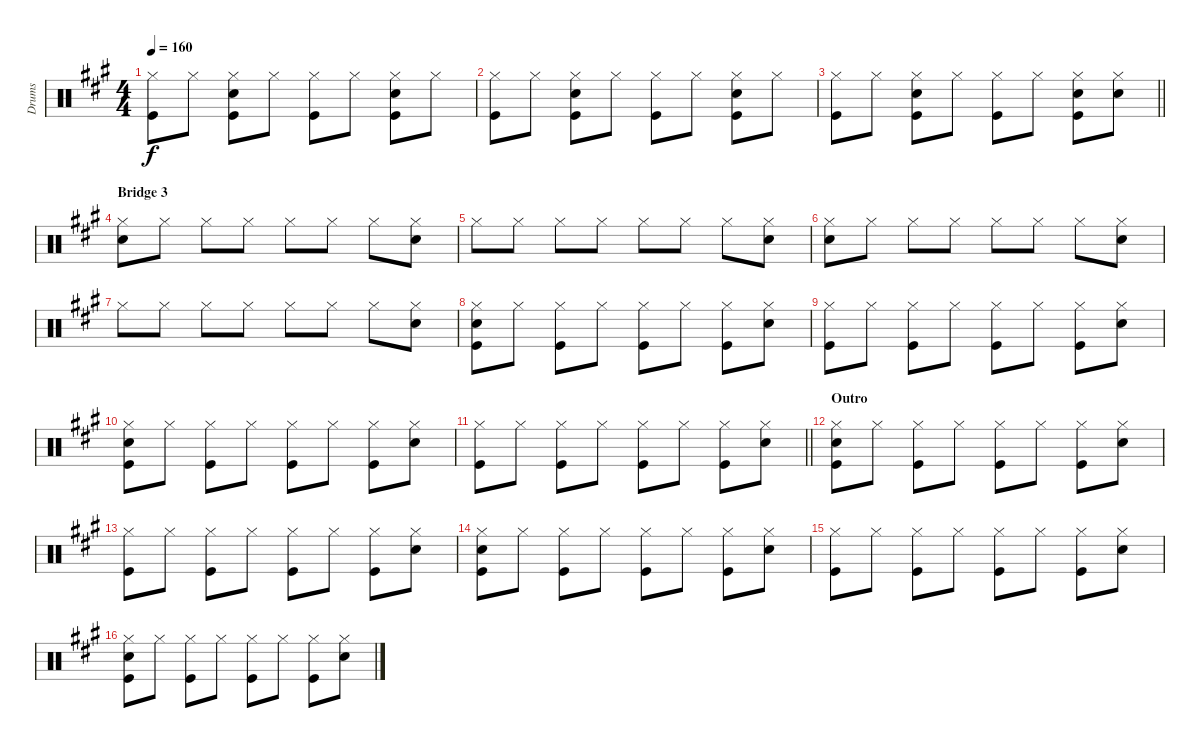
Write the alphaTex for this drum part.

\track ("Drums" "Drums") {instrument percussion}
\staff {score}
\articulation defaults
\ts (4 4)
\tempo 160
\clef neutral
\ks a
("Hi-Hat (closed)" "Kick (hit)").8{dy f} "Hi-Hat (closed)".8 ("Hi-Hat (closed)" "Snare (hit) 2" "Kick (hit)").8 "Hi-Hat (closed)".8 ("Hi-Hat (closed)" "Kick (hit)").8 "Hi-Hat (closed)".8 ("Hi-Hat (closed)" "Snare (hit) 2" "Kick (hit)").8 "Hi-Hat (closed)".8 |
("Hi-Hat (closed)" "Kick (hit)").8 "Hi-Hat (closed)".8 ("Hi-Hat (closed)" "Snare (hit) 2" "Kick (hit)").8 "Hi-Hat (closed)".8 ("Hi-Hat (closed)" "Kick (hit)").8 "Hi-Hat (closed)".8 ("Hi-Hat (closed)" "Snare (hit) 2" "Kick (hit)").8 "Hi-Hat (closed)".8 |
\barLineRight lightlight
("Hi-Hat (closed)" "Kick (hit)").8 "Hi-Hat (closed)".8 ("Hi-Hat (closed)" "Snare (hit) 2" "Kick (hit)").8 "Hi-Hat (closed)".8 ("Hi-Hat (closed)" "Kick (hit)").8 "Hi-Hat (closed)".8 ("Hi-Hat (closed)" "Snare (hit) 2" "Kick (hit)").8 ("Hi-Hat (closed)" "Snare (hit) 2").8 |
\section ("" "Bridge 3")
("Snare (hit) 2" "Hi-Hat (closed)").8 "Hi-Hat (closed)".8 "Hi-Hat (closed)".8 "Hi-Hat (closed)".8 "Hi-Hat (closed)".8 "Hi-Hat (closed)".8 "Hi-Hat (closed)".8 ("Hi-Hat (closed)" "Snare (hit) 2").8 |
"Hi-Hat (closed)".8 "Hi-Hat (closed)".8 "Hi-Hat (closed)".8 "Hi-Hat (closed)".8 "Hi-Hat (closed)".8 "Hi-Hat (closed)".8 "Hi-Hat (closed)".8 ("Hi-Hat (closed)" "Snare (hit) 2").8 |
("Snare (hit) 2" "Hi-Hat (closed)").8 "Hi-Hat (closed)".8 "Hi-Hat (closed)".8 "Hi-Hat (closed)".8 "Hi-Hat (closed)".8 "Hi-Hat (closed)".8 "Hi-Hat (closed)".8 ("Hi-Hat (closed)" "Snare (hit) 2").8 |
"Hi-Hat (closed)".8 "Hi-Hat (closed)".8 "Hi-Hat (closed)".8 "Hi-Hat (closed)".8 "Hi-Hat (closed)".8 "Hi-Hat (closed)".8 "Hi-Hat (closed)".8 ("Hi-Hat (closed)" "Snare (hit) 2").8 |
("Snare (hit) 2" "Hi-Hat (closed)" "Kick (hit)").8 "Hi-Hat (closed)".8 ("Hi-Hat (closed)" "Kick (hit)").8 "Hi-Hat (closed)".8 ("Hi-Hat (closed)" "Kick (hit)").8 "Hi-Hat (closed)".8 ("Hi-Hat (closed)" "Kick (hit)").8 ("Hi-Hat (closed)" "Snare (hit) 2").8 |
("Kick (hit)" "Hi-Hat (closed)").8 "Hi-Hat (closed)".8 ("Hi-Hat (closed)" "Kick (hit)").8 "Hi-Hat (closed)".8 ("Hi-Hat (closed)" "Kick (hit)").8 "Hi-Hat (closed)".8 ("Hi-Hat (closed)" "Kick (hit)").8 ("Hi-Hat (closed)" "Snare (hit) 2").8 |
("Snare (hit) 2" "Hi-Hat (closed)" "Kick (hit)").8 "Hi-Hat (closed)".8 ("Hi-Hat (closed)" "Kick (hit)").8 "Hi-Hat (closed)".8 ("Hi-Hat (closed)" "Kick (hit)").8 "Hi-Hat (closed)".8 ("Hi-Hat (closed)" "Kick (hit)").8 ("Hi-Hat (closed)" "Snare (hit) 2").8 |
\barLineRight lightlight
("Kick (hit)" "Hi-Hat (closed)").8 "Hi-Hat (closed)".8 ("Hi-Hat (closed)" "Kick (hit)").8 "Hi-Hat (closed)".8 ("Hi-Hat (closed)" "Kick (hit)").8 "Hi-Hat (closed)".8 ("Hi-Hat (closed)" "Kick (hit)").8 ("Hi-Hat (closed)" "Snare (hit) 2").8 |
\section ("" "Outro")
("Snare (hit) 2" "Hi-Hat (closed)" "Kick (hit)").8 "Hi-Hat (closed)".8 ("Hi-Hat (closed)" "Kick (hit)").8 "Hi-Hat (closed)".8 ("Hi-Hat (closed)" "Kick (hit)").8 "Hi-Hat (closed)".8 ("Hi-Hat (closed)" "Kick (hit)").8 ("Hi-Hat (closed)" "Snare (hit) 2").8 |
("Kick (hit)" "Hi-Hat (closed)").8 "Hi-Hat (closed)".8 ("Hi-Hat (closed)" "Kick (hit)").8 "Hi-Hat (closed)".8 ("Hi-Hat (closed)" "Kick (hit)").8 "Hi-Hat (closed)".8 ("Hi-Hat (closed)" "Kick (hit)").8 ("Hi-Hat (closed)" "Snare (hit) 2").8 |
("Snare (hit) 2" "Hi-Hat (closed)" "Kick (hit)").8 "Hi-Hat (closed)".8 ("Hi-Hat (closed)" "Kick (hit)").8 "Hi-Hat (closed)".8 ("Hi-Hat (closed)" "Kick (hit)").8 "Hi-Hat (closed)".8 ("Hi-Hat (closed)" "Kick (hit)").8 ("Hi-Hat (closed)" "Snare (hit) 2").8 |
("Kick (hit)" "Hi-Hat (closed)").8 "Hi-Hat (closed)".8 ("Hi-Hat (closed)" "Kick (hit)").8 "Hi-Hat (closed)".8 ("Hi-Hat (closed)" "Kick (hit)").8 "Hi-Hat (closed)".8 ("Hi-Hat (closed)" "Kick (hit)").8 ("Hi-Hat (closed)" "Snare (hit) 2").8 |
("Snare (hit) 2" "Hi-Hat (closed)" "Kick (hit)").8 "Hi-Hat (closed)".8 ("Hi-Hat (closed)" "Kick (hit)").8 "Hi-Hat (closed)".8 ("Hi-Hat (closed)" "Kick (hit)").8 "Hi-Hat (closed)".8 ("Hi-Hat (closed)" "Kick (hit)").8 ("Hi-Hat (closed)" "Snare (hit) 2").8
